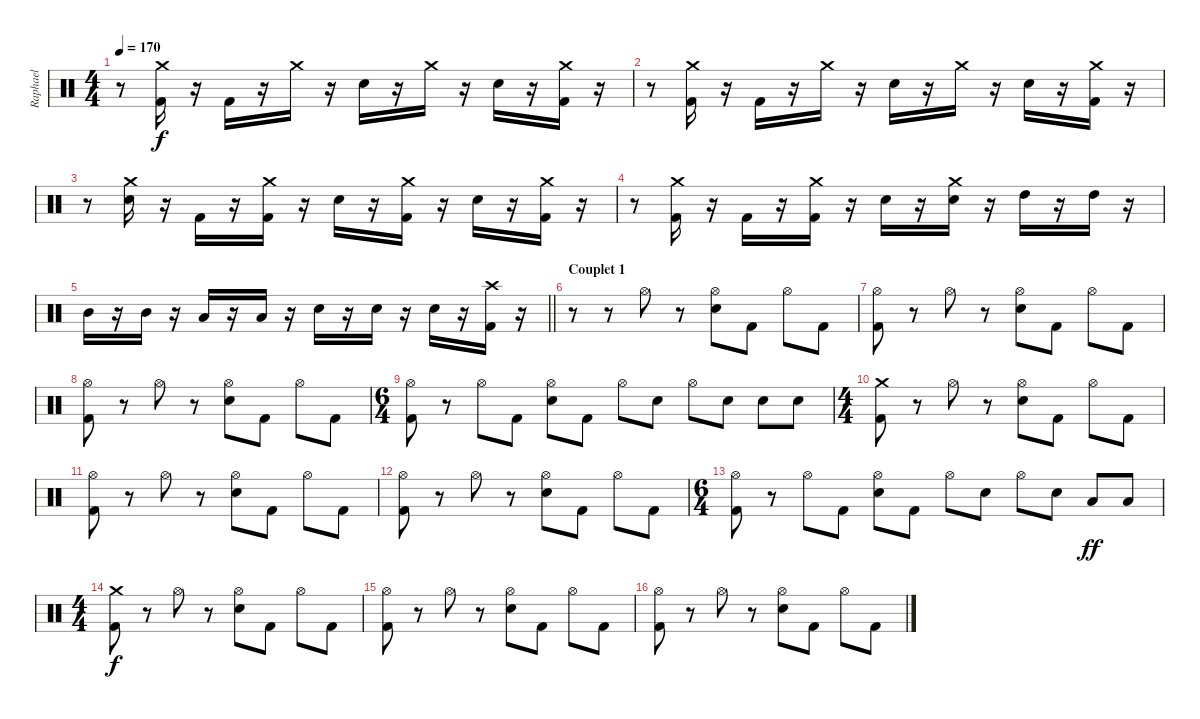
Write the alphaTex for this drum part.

\track ("Raphael" "Raphael") {instrument percussion}
\staff {score}
\articulation defaults
\ts (4 4)
\tempo 170
\clef neutral
\ks c
r.8{dy f} ("Kick (hit) 2" "Crash medium (hit)").16 r.16 "Kick (hit) 2".16 r.16 "Crash medium (hit)".16 r.16 "Snare (hit) 2".16 r.16 "Crash medium (hit)".16 r.16 "Snare (hit) 2".16 r.16 ("Kick (hit) 2" "Crash medium (hit)").16 r.16 |
r.8 ("Kick (hit) 2" "Crash medium (hit)").16 r.16 "Kick (hit) 2".16 r.16 "Crash medium (hit)".16 r.16 "Snare (hit) 2".16 r.16 "Crash medium (hit)".16 r.16 "Snare (hit) 2".16 r.16 ("Kick (hit) 2" "Crash medium (hit)").16 r.16 |
r.8 ("Snare (hit) 2" "Crash medium (hit)").16 r.16 "Kick (hit) 2".16 r.16 ("Kick (hit) 2" "Crash medium (hit)").16 r.16 "Snare (hit) 2".16 r.16 ("Kick (hit) 2" "Crash medium (hit)").16 r.16 "Snare (hit) 2".16 r.16 ("Kick (hit) 2" "Crash medium (hit)").16 r.16 |
r.8 ("Kick (hit) 2" "Crash medium (hit)").16 r.16 "Kick (hit) 2".16 r.16 ("Kick (hit) 2" "Crash medium (hit)").16 r.16 "Snare (hit) 2".16 r.16 ("Snare (hit) 2" "Crash medium (hit)").16 r.16 "High Tom (hit)".16 r.16 "High Tom (hit)".16 r.16 |
\barLineRight lightlight "Mid Tom (hit)".16
r.16 "Mid Tom (hit)".16 r.16 "Low Tom (hit)".16 r.16 "Low Tom (hit)".16 r.16 "Snare (hit) 2".16 r.16 "Snare (hit) 2".16 r.16 "Snare (hit) 2".16 r.16 ("Kick (hit) 2" "Crash high (hit)").16 r.16 |
\section ("" "Couplet 1")
r.8 r.8 "Hi-Hat (open)".8 r.8 ("Snare (hit) 2" "Hi-Hat (open)").8 "Kick (hit) 2".8 "Hi-Hat (open)".8 "Kick (hit) 2".8 |
("Kick (hit) 2" "Hi-Hat (open)").8 r.8 "Hi-Hat (open)".8 r.8 ("Snare (hit) 2" "Hi-Hat (open)").8 "Kick (hit) 2".8 "Hi-Hat (open)".8 "Kick (hit) 2".8 |
("Kick (hit) 2" "Hi-Hat (open)").8 r.8 "Hi-Hat (open)".8 r.8 ("Snare (hit) 2" "Hi-Hat (open)").8 "Kick (hit) 2".8 "Hi-Hat (open)".8 "Kick (hit) 2".8 |
\ts (6 4)
("Kick (hit) 2" "Hi-Hat (open)").8 r.8 "Hi-Hat (open)".8 "Kick (hit) 2".8 ("Snare (hit) 2" "Hi-Hat (open)").8 "Kick (hit) 2".8 "Hi-Hat (open)".8 "Snare (hit) 2".8 "Hi-Hat (open)".8 "Snare (hit) 2".8 "Snare (hit) 2".8 "Snare (hit) 2".8 |
\ts (4 4)
("Kick (hit) 2" "Crash medium (hit)").8 r.8 "Hi-Hat (open)".8 r.8 ("Snare (hit) 2" "Hi-Hat (open)").8 "Kick (hit) 2".8 "Hi-Hat (open)".8 "Kick (hit) 2".8 |
("Kick (hit) 2" "Hi-Hat (open)").8 r.8 "Hi-Hat (open)".8 r.8 ("Snare (hit) 2" "Hi-Hat (open)").8 "Kick (hit) 2".8 "Hi-Hat (open)".8 "Kick (hit) 2".8 |
("Kick (hit) 2" "Hi-Hat (open)").8 r.8 "Hi-Hat (open)".8 r.8 ("Snare (hit) 2" "Hi-Hat (open)").8 "Kick (hit) 2".8 "Hi-Hat (open)".8 "Kick (hit) 2".8 |
\ts (6 4)
("Kick (hit) 2" "Hi-Hat (open)").8 r.8 "Hi-Hat (open)".8 "Kick (hit) 2".8 ("Snare (hit) 2" "Hi-Hat (open)").8 "Kick (hit) 2".8 "Hi-Hat (open)".8 "Snare (hit) 2".8 "Hi-Hat (open)".8 "Snare (hit) 2".8 "Low Tom (hit)".8{dy ff} "Low Tom (hit)".8 |
\ts (4 4)
("Kick (hit) 2" "Crash medium (hit)").8{dy f} r.8 "Hi-Hat (open)".8 r.8 ("Snare (hit) 2" "Hi-Hat (open)").8 "Kick (hit) 2".8 "Hi-Hat (open)".8 "Kick (hit) 2".8 |
("Kick (hit) 2" "Hi-Hat (open)").8 r.8 "Hi-Hat (open)".8 r.8 ("Snare (hit) 2" "Hi-Hat (open)").8 "Kick (hit) 2".8 "Hi-Hat (open)".8 "Kick (hit) 2".8 |
("Kick (hit) 2" "Hi-Hat (open)").8 r.8 "Hi-Hat (open)".8 r.8 ("Snare (hit) 2" "Hi-Hat (open)").8 "Kick (hit) 2".8 "Hi-Hat (open)".8 "Kick (hit) 2".8
